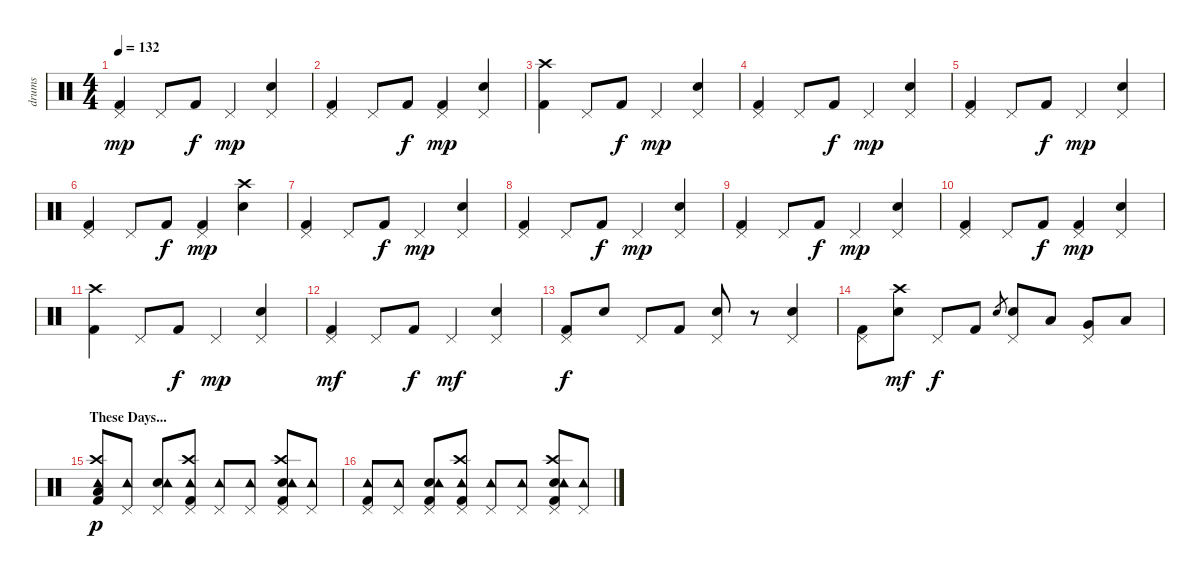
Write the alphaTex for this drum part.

\track ("drums" "drums") {instrument percussion}
\staff {score}
\articulation defaults
\ts (4 4)
\tempo 132
\clef neutral
\ks c
("Kick (hit) 2" "Pedal Hi-Hat (hit)").4{dy mp} "Pedal Hi-Hat (hit)".8 "Kick (hit) 2".8{dy f} "Pedal Hi-Hat (hit)".4{dy mp} ("Electric Snare (hit)" "Pedal Hi-Hat (hit)").4 |
("Kick (hit) 2" "Pedal Hi-Hat (hit)").4 "Pedal Hi-Hat (hit)".8 "Kick (hit) 2".8{dy f} ("Kick (hit) 2" "Pedal Hi-Hat (hit)").4{dy mp} ("Electric Snare (hit)" "Pedal Hi-Hat (hit)").4 |
("Kick (hit) 2" "Crash high (hit)").4 "Pedal Hi-Hat (hit)".8 "Kick (hit) 2".8{dy f} "Pedal Hi-Hat (hit)".4{dy mp} ("Electric Snare (hit)" "Pedal Hi-Hat (hit)").4 |
("Kick (hit) 2" "Pedal Hi-Hat (hit)").4 "Pedal Hi-Hat (hit)".8 "Kick (hit) 2".8{dy f} "Pedal Hi-Hat (hit)".4{dy mp} ("Electric Snare (hit)" "Pedal Hi-Hat (hit)").4 |
("Kick (hit) 2" "Pedal Hi-Hat (hit)").4 "Pedal Hi-Hat (hit)".8 "Kick (hit) 2".8{dy f} "Pedal Hi-Hat (hit)".4{dy mp} ("Electric Snare (hit)" "Pedal Hi-Hat (hit)").4 |
("Kick (hit) 2" "Pedal Hi-Hat (hit)").4 "Pedal Hi-Hat (hit)".8 "Kick (hit) 2".8{dy f} ("Kick (hit) 2" "Pedal Hi-Hat (hit)").4{dy mp} ("Electric Snare (hit)" "Crash high (hit)").4 |
("Kick (hit) 2" "Pedal Hi-Hat (hit)").4 "Pedal Hi-Hat (hit)".8 "Kick (hit) 2".8{dy f} "Pedal Hi-Hat (hit)".4{dy mp} ("Electric Snare (hit)" "Pedal Hi-Hat (hit)").4 |
("Kick (hit) 2" "Pedal Hi-Hat (hit)").4 "Pedal Hi-Hat (hit)".8 "Kick (hit) 2".8{dy f} "Pedal Hi-Hat (hit)".4{dy mp} ("Electric Snare (hit)" "Pedal Hi-Hat (hit)").4 |
("Kick (hit) 2" "Pedal Hi-Hat (hit)").4 "Pedal Hi-Hat (hit)".8 "Kick (hit) 2".8{dy f} "Pedal Hi-Hat (hit)".4{dy mp} ("Electric Snare (hit)" "Pedal Hi-Hat (hit)").4 |
("Kick (hit) 2" "Pedal Hi-Hat (hit)").4 "Pedal Hi-Hat (hit)".8 "Kick (hit) 2".8{dy f} ("Kick (hit) 2" "Pedal Hi-Hat (hit)").4{dy mp} ("Electric Snare (hit)" "Pedal Hi-Hat (hit)").4 |
("Kick (hit) 2" "Crash high (hit)").4 "Pedal Hi-Hat (hit)".8 "Kick (hit) 2".8{dy f} "Pedal Hi-Hat (hit)".4{dy mp} ("Electric Snare (hit)" "Pedal Hi-Hat (hit)").4 |
("Kick (hit) 2" "Pedal Hi-Hat (hit)").4{dy mf} "Pedal Hi-Hat (hit)".8 "Kick (hit) 2".8{dy f} "Pedal Hi-Hat (hit)".4{dy mf} ("Electric Snare (hit)" "Pedal Hi-Hat (hit)").4 |
("Kick (hit) 2" "Pedal Hi-Hat (hit)").8{dy f} "Electric Snare (hit)".8 "Pedal Hi-Hat (hit)".8 "Kick (hit) 2".8 ("Electric Snare (hit)" "Pedal Hi-Hat (hit)").8 r.8 ("Electric Snare (hit)" "Pedal Hi-Hat (hit)").4 |
("Kick (hit) 2" "Pedal Hi-Hat (hit)").8 ("Electric Snare (hit)" "Crash high (hit)").8{dy mf} "Pedal Hi-Hat (hit)".8{dy f} "Kick (hit) 2".8 "Electric Snare (hit)".8{gr} ("Electric Snare (hit)" "Pedal Hi-Hat (hit)").8 "Low Tom (hit)".8 ("Very Low Tom (hit)" "Pedal Hi-Hat (hit)").8 "Low Floor Tom (hit)".8 |
\section ("" "These Days...")
("Low Floor Tom (hit)" "Kick (hit) 2" "Crash high (hit)" "Tambourine (hit)").8{dy p} ("Pedal Hi-Hat (hit)" "Tambourine (hit)").8 ("Electric Snare (hit)" "Pedal Hi-Hat (hit)" "Tambourine (hit)").8 ("Crash high (hit)" "Kick (hit) 2" "Pedal Hi-Hat (hit)" "Tambourine (hit)").8 ("Pedal Hi-Hat (hit)" "Tambourine (hit)").8 ("Pedal Hi-Hat (hit)" "Tambourine (hit)").8 ("Electric Snare (hit)" "Crash high (hit)" "Kick (hit) 2" "Pedal Hi-Hat (hit)" "Tambourine (hit)").8 ("Pedal Hi-Hat (hit)" "Tambourine (hit)").8 |
("Kick (hit) 2" "Pedal Hi-Hat (hit)" "Tambourine (hit)").8 ("Pedal Hi-Hat (hit)" "Tambourine (hit)").8 ("Electric Snare (hit)" "Kick (hit) 2" "Pedal Hi-Hat (hit)" "Tambourine (hit)").8 ("Crash high (hit)" "Kick (hit) 2" "Pedal Hi-Hat (hit)" "Tambourine (hit)").8 ("Pedal Hi-Hat (hit)" "Tambourine (hit)").8 ("Pedal Hi-Hat (hit)" "Tambourine (hit)").8 ("Electric Snare (hit)" "Crash high (hit)" "Kick (hit) 2" "Pedal Hi-Hat (hit)" "Tambourine (hit)").8 ("Pedal Hi-Hat (hit)" "Tambourine (hit)").8
